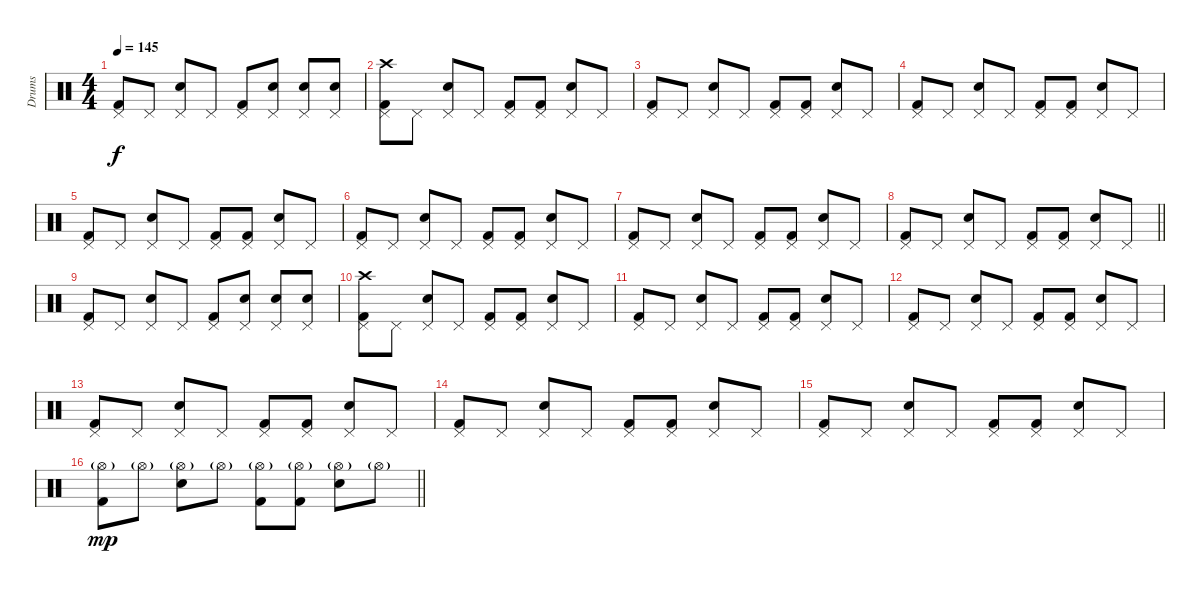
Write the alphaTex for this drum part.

\track ("Drums" "Drums") {instrument percussion}
\staff {score}
\articulation defaults
\ts (4 4)
\tempo 145
\clef neutral
\ks c
("Kick (hit) 2" "Pedal Hi-Hat (hit)").8{dy f} "Pedal Hi-Hat (hit)".8 ("Snare (hit) 2" "Pedal Hi-Hat (hit)").8 "Pedal Hi-Hat (hit)".8 ("Kick (hit) 2" "Pedal Hi-Hat (hit)").8 ("Snare (hit) 2" "Pedal Hi-Hat (hit)").8 ("Snare (hit) 2" "Pedal Hi-Hat (hit)").8 ("Snare (hit) 2" "Pedal Hi-Hat (hit)").8 |
("Kick (hit) 2" "Crash high (hit)" "Pedal Hi-Hat (hit)").8 "Pedal Hi-Hat (hit)".8 ("Snare (hit) 2" "Pedal Hi-Hat (hit)").8 "Pedal Hi-Hat (hit)".8 ("Kick (hit) 2" "Pedal Hi-Hat (hit)").8 ("Kick (hit) 2" "Pedal Hi-Hat (hit)").8 ("Snare (hit) 2" "Pedal Hi-Hat (hit)").8 "Pedal Hi-Hat (hit)".8 |
("Kick (hit) 2" "Pedal Hi-Hat (hit)").8 "Pedal Hi-Hat (hit)".8 ("Snare (hit) 2" "Pedal Hi-Hat (hit)").8 "Pedal Hi-Hat (hit)".8 ("Kick (hit) 2" "Pedal Hi-Hat (hit)").8 ("Kick (hit) 2" "Pedal Hi-Hat (hit)").8 ("Snare (hit) 2" "Pedal Hi-Hat (hit)").8 "Pedal Hi-Hat (hit)".8 |
("Kick (hit) 2" "Pedal Hi-Hat (hit)").8 "Pedal Hi-Hat (hit)".8 ("Snare (hit) 2" "Pedal Hi-Hat (hit)").8 "Pedal Hi-Hat (hit)".8 ("Kick (hit) 2" "Pedal Hi-Hat (hit)").8 ("Kick (hit) 2" "Pedal Hi-Hat (hit)").8 ("Snare (hit) 2" "Pedal Hi-Hat (hit)").8 "Pedal Hi-Hat (hit)".8 |
("Kick (hit) 2" "Pedal Hi-Hat (hit)").8 "Pedal Hi-Hat (hit)".8 ("Snare (hit) 2" "Pedal Hi-Hat (hit)").8 "Pedal Hi-Hat (hit)".8 ("Kick (hit) 2" "Pedal Hi-Hat (hit)").8 ("Kick (hit) 2" "Pedal Hi-Hat (hit)").8 ("Snare (hit) 2" "Pedal Hi-Hat (hit)").8 "Pedal Hi-Hat (hit)".8 |
("Kick (hit) 2" "Pedal Hi-Hat (hit)").8 "Pedal Hi-Hat (hit)".8 ("Snare (hit) 2" "Pedal Hi-Hat (hit)").8 "Pedal Hi-Hat (hit)".8 ("Kick (hit) 2" "Pedal Hi-Hat (hit)").8 ("Kick (hit) 2" "Pedal Hi-Hat (hit)").8 ("Snare (hit) 2" "Pedal Hi-Hat (hit)").8 "Pedal Hi-Hat (hit)".8 |
("Kick (hit) 2" "Pedal Hi-Hat (hit)").8 "Pedal Hi-Hat (hit)".8 ("Snare (hit) 2" "Pedal Hi-Hat (hit)").8 "Pedal Hi-Hat (hit)".8 ("Kick (hit) 2" "Pedal Hi-Hat (hit)").8 ("Kick (hit) 2" "Pedal Hi-Hat (hit)").8 ("Snare (hit) 2" "Pedal Hi-Hat (hit)").8 "Pedal Hi-Hat (hit)".8 |
\barLineRight lightlight
("Kick (hit) 2" "Pedal Hi-Hat (hit)").8 "Pedal Hi-Hat (hit)".8 ("Snare (hit) 2" "Pedal Hi-Hat (hit)").8 "Pedal Hi-Hat (hit)".8 ("Kick (hit) 2" "Pedal Hi-Hat (hit)").8 ("Kick (hit) 2" "Pedal Hi-Hat (hit)").8 ("Snare (hit) 2" "Pedal Hi-Hat (hit)").8 "Pedal Hi-Hat (hit)".8 |
("Kick (hit) 2" "Pedal Hi-Hat (hit)").8 "Pedal Hi-Hat (hit)".8 ("Snare (hit) 2" "Pedal Hi-Hat (hit)").8 "Pedal Hi-Hat (hit)".8 ("Kick (hit) 2" "Pedal Hi-Hat (hit)").8 ("Snare (hit) 2" "Pedal Hi-Hat (hit)").8 ("Snare (hit) 2" "Pedal Hi-Hat (hit)").8 ("Snare (hit) 2" "Pedal Hi-Hat (hit)").8 |
("Kick (hit) 2" "Crash high (hit)" "Pedal Hi-Hat (hit)").8 "Pedal Hi-Hat (hit)".8 ("Snare (hit) 2" "Pedal Hi-Hat (hit)").8 "Pedal Hi-Hat (hit)".8 ("Kick (hit) 2" "Pedal Hi-Hat (hit)").8 ("Kick (hit) 2" "Pedal Hi-Hat (hit)").8 ("Snare (hit) 2" "Pedal Hi-Hat (hit)").8 "Pedal Hi-Hat (hit)".8 |
("Kick (hit) 2" "Pedal Hi-Hat (hit)").8 "Pedal Hi-Hat (hit)".8 ("Snare (hit) 2" "Pedal Hi-Hat (hit)").8 "Pedal Hi-Hat (hit)".8 ("Kick (hit) 2" "Pedal Hi-Hat (hit)").8 ("Kick (hit) 2" "Pedal Hi-Hat (hit)").8 ("Snare (hit) 2" "Pedal Hi-Hat (hit)").8 "Pedal Hi-Hat (hit)".8 |
("Kick (hit) 2" "Pedal Hi-Hat (hit)").8 "Pedal Hi-Hat (hit)".8 ("Snare (hit) 2" "Pedal Hi-Hat (hit)").8 "Pedal Hi-Hat (hit)".8 ("Kick (hit) 2" "Pedal Hi-Hat (hit)").8 ("Kick (hit) 2" "Pedal Hi-Hat (hit)").8 ("Snare (hit) 2" "Pedal Hi-Hat (hit)").8 "Pedal Hi-Hat (hit)".8 |
("Kick (hit) 2" "Pedal Hi-Hat (hit)").8 "Pedal Hi-Hat (hit)".8 ("Snare (hit) 2" "Pedal Hi-Hat (hit)").8 "Pedal Hi-Hat (hit)".8 ("Kick (hit) 2" "Pedal Hi-Hat (hit)").8 ("Kick (hit) 2" "Pedal Hi-Hat (hit)").8 ("Snare (hit) 2" "Pedal Hi-Hat (hit)").8 "Pedal Hi-Hat (hit)".8 |
("Kick (hit) 2" "Pedal Hi-Hat (hit)").8 "Pedal Hi-Hat (hit)".8 ("Snare (hit) 2" "Pedal Hi-Hat (hit)").8 "Pedal Hi-Hat (hit)".8 ("Kick (hit) 2" "Pedal Hi-Hat (hit)").8 ("Kick (hit) 2" "Pedal Hi-Hat (hit)").8 ("Snare (hit) 2" "Pedal Hi-Hat (hit)").8 "Pedal Hi-Hat (hit)".8 |
("Kick (hit) 2" "Pedal Hi-Hat (hit)").8 "Pedal Hi-Hat (hit)".8 ("Snare (hit) 2" "Pedal Hi-Hat (hit)").8 "Pedal Hi-Hat (hit)".8 ("Kick (hit) 2" "Pedal Hi-Hat (hit)").8 ("Kick (hit) 2" "Pedal Hi-Hat (hit)").8 ("Snare (hit) 2" "Pedal Hi-Hat (hit)").8 "Pedal Hi-Hat (hit)".8 |
\barLineRight lightlight
("Kick (hit) 2" "Hi-Hat (open)"{g}).8{dy mp} "Hi-Hat (open)"{g}.8 ("Snare (hit) 2" "Hi-Hat (open)"{g}).8 "Hi-Hat (open)"{g}.8 ("Kick (hit) 2" "Hi-Hat (open)"{g}).8 ("Kick (hit) 2" "Hi-Hat (open)"{g}).8 ("Snare (hit) 2" "Hi-Hat (open)"{g}).8 "Hi-Hat (open)"{g}.8
